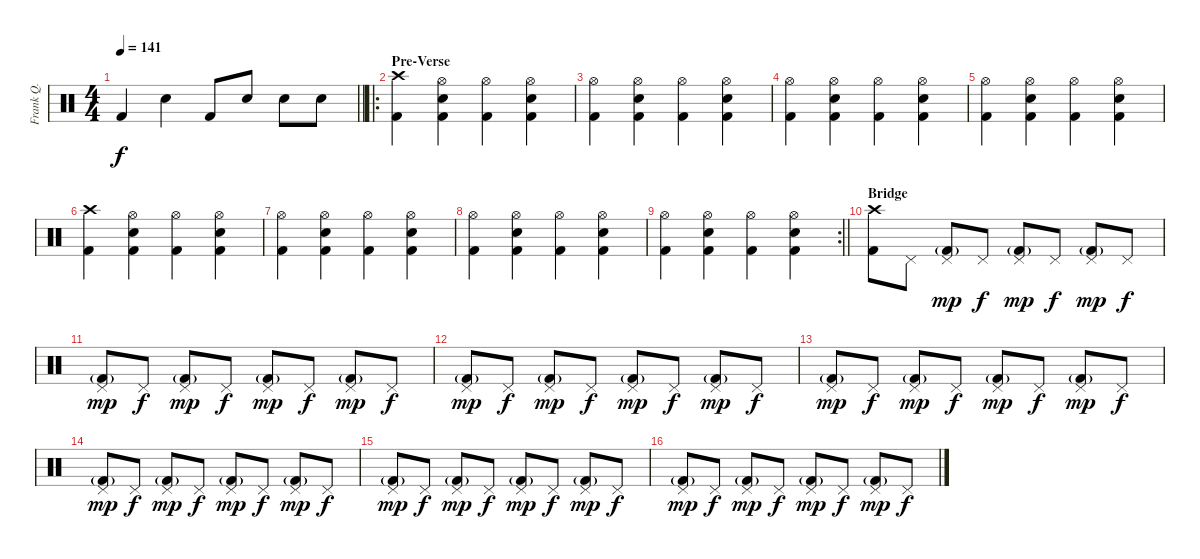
\track ("Frank Q." "Frank Q.") {instrument percussion}
\staff {score}
\articulation defaults
\ts (4 4)
\tempo 141
\clef neutral
\barLineRight lightlight
\ks c "Kick (hit) 2".4{dy f} "Electric Snare (hit)".4 "Kick (hit) 2".8 "Electric Snare (hit)".8 "Electric Snare (hit)".8 "Electric Snare (hit)".8
|
\ro
\section ("" "Pre-Verse")
("Crash high (hit)" "Kick (hit) 2").4 ("Hi-Hat (open)" "Electric Snare (hit)" "Kick (hit) 2").4 ("Hi-Hat (open)" "Kick (hit) 2").4 ("Hi-Hat (open)" "Electric Snare (hit)" "Kick (hit) 2").4 |
("Hi-Hat (open)" "Kick (hit) 2").4 ("Hi-Hat (open)" "Electric Snare (hit)" "Kick (hit) 2").4 ("Hi-Hat (open)" "Kick (hit) 2").4 ("Hi-Hat (open)" "Electric Snare (hit)" "Kick (hit) 2").4 |
("Hi-Hat (open)" "Kick (hit) 2").4 ("Hi-Hat (open)" "Electric Snare (hit)" "Kick (hit) 2").4 ("Hi-Hat (open)" "Kick (hit) 2").4 ("Hi-Hat (open)" "Electric Snare (hit)" "Kick (hit) 2").4 |
("Hi-Hat (open)" "Kick (hit) 2").4 ("Hi-Hat (open)" "Electric Snare (hit)" "Kick (hit) 2").4 ("Hi-Hat (open)" "Kick (hit) 2").4 ("Hi-Hat (open)" "Electric Snare (hit)" "Kick (hit) 2").4 |
("Crash high (hit)" "Kick (hit) 2").4 ("Hi-Hat (open)" "Electric Snare (hit)" "Kick (hit) 2").4 ("Hi-Hat (open)" "Kick (hit) 2").4 ("Hi-Hat (open)" "Electric Snare (hit)" "Kick (hit) 2").4 |
("Hi-Hat (open)" "Kick (hit) 2").4 ("Hi-Hat (open)" "Electric Snare (hit)" "Kick (hit) 2").4 ("Hi-Hat (open)" "Kick (hit) 2").4 ("Hi-Hat (open)" "Electric Snare (hit)" "Kick (hit) 2").4 |
("Hi-Hat (open)" "Kick (hit) 2").4 ("Hi-Hat (open)" "Electric Snare (hit)" "Kick (hit) 2").4 ("Hi-Hat (open)" "Kick (hit) 2").4 ("Hi-Hat (open)" "Electric Snare (hit)" "Kick (hit) 2").4 |
\rc 2
\barLineRight lightlight
("Hi-Hat (open)" "Kick (hit) 2").4 ("Hi-Hat (open)" "Electric Snare (hit)" "Kick (hit) 2").4 ("Hi-Hat (open)" "Kick (hit) 2").4 ("Hi-Hat (open)" "Electric Snare (hit)" "Kick (hit) 2").4 |
\section ("" "Bridge")
("Crash high (hit)" "Kick (hit) 2").8 "Pedal Hi-Hat (hit)".8 ("Pedal Hi-Hat (hit)" "Kick (hit) 2"{g}).8{dy mp} "Pedal Hi-Hat (hit)".8{dy f} ("Pedal Hi-Hat (hit)" "Kick (hit) 2"{g}).8{dy mp} "Pedal Hi-Hat (hit)".8{dy f} ("Pedal Hi-Hat (hit)" "Kick (hit) 2"{g}).8{dy mp} "Pedal Hi-Hat (hit)".8{dy f} |
("Pedal Hi-Hat (hit)" "Kick (hit) 2"{g}).8{dy mp} "Pedal Hi-Hat (hit)".8{dy f} ("Pedal Hi-Hat (hit)" "Kick (hit) 2"{g}).8{dy mp} "Pedal Hi-Hat (hit)".8{dy f} ("Pedal Hi-Hat (hit)" "Kick (hit) 2"{g}).8{dy mp} "Pedal Hi-Hat (hit)".8{dy f} ("Pedal Hi-Hat (hit)" "Kick (hit) 2"{g}).8{dy mp} "Pedal Hi-Hat (hit)".8{dy f} |
("Pedal Hi-Hat (hit)" "Kick (hit) 2"{g}).8{dy mp} "Pedal Hi-Hat (hit)".8{dy f} ("Pedal Hi-Hat (hit)" "Kick (hit) 2"{g}).8{dy mp} "Pedal Hi-Hat (hit)".8{dy f} ("Pedal Hi-Hat (hit)" "Kick (hit) 2"{g}).8{dy mp} "Pedal Hi-Hat (hit)".8{dy f} ("Pedal Hi-Hat (hit)" "Kick (hit) 2"{g}).8{dy mp} "Pedal Hi-Hat (hit)".8{dy f} |
("Pedal Hi-Hat (hit)" "Kick (hit) 2"{g}).8{dy mp} "Pedal Hi-Hat (hit)".8{dy f} ("Pedal Hi-Hat (hit)" "Kick (hit) 2"{g}).8{dy mp} "Pedal Hi-Hat (hit)".8{dy f} ("Pedal Hi-Hat (hit)" "Kick (hit) 2"{g}).8{dy mp} "Pedal Hi-Hat (hit)".8{dy f} ("Pedal Hi-Hat (hit)" "Kick (hit) 2"{g}).8{dy mp} "Pedal Hi-Hat (hit)".8{dy f} |
("Pedal Hi-Hat (hit)" "Kick (hit) 2"{g}).8{dy mp} "Pedal Hi-Hat (hit)".8{dy f} ("Pedal Hi-Hat (hit)" "Kick (hit) 2"{g}).8{dy mp} "Pedal Hi-Hat (hit)".8{dy f} ("Pedal Hi-Hat (hit)" "Kick (hit) 2"{g}).8{dy mp} "Pedal Hi-Hat (hit)".8{dy f} ("Pedal Hi-Hat (hit)" "Kick (hit) 2"{g}).8{dy mp} "Pedal Hi-Hat (hit)".8{dy f} |
("Pedal Hi-Hat (hit)" "Kick (hit) 2"{g}).8{dy mp} "Pedal Hi-Hat (hit)".8{dy f} ("Pedal Hi-Hat (hit)" "Kick (hit) 2"{g}).8{dy mp} "Pedal Hi-Hat (hit)".8{dy f} ("Pedal Hi-Hat (hit)" "Kick (hit) 2"{g}).8{dy mp} "Pedal Hi-Hat (hit)".8{dy f} ("Pedal Hi-Hat (hit)" "Kick (hit) 2"{g}).8{dy mp} "Pedal Hi-Hat (hit)".8{dy f} |
("Pedal Hi-Hat (hit)" "Kick (hit) 2"{g}).8{dy mp} "Pedal Hi-Hat (hit)".8{dy f} ("Pedal Hi-Hat (hit)" "Kick (hit) 2"{g}).8{dy mp} "Pedal Hi-Hat (hit)".8{dy f} ("Pedal Hi-Hat (hit)" "Kick (hit) 2"{g}).8{dy mp} "Pedal Hi-Hat (hit)".8{dy f} ("Pedal Hi-Hat (hit)" "Kick (hit) 2"{g}).8{dy mp} "Pedal Hi-Hat (hit)".8{dy f}
